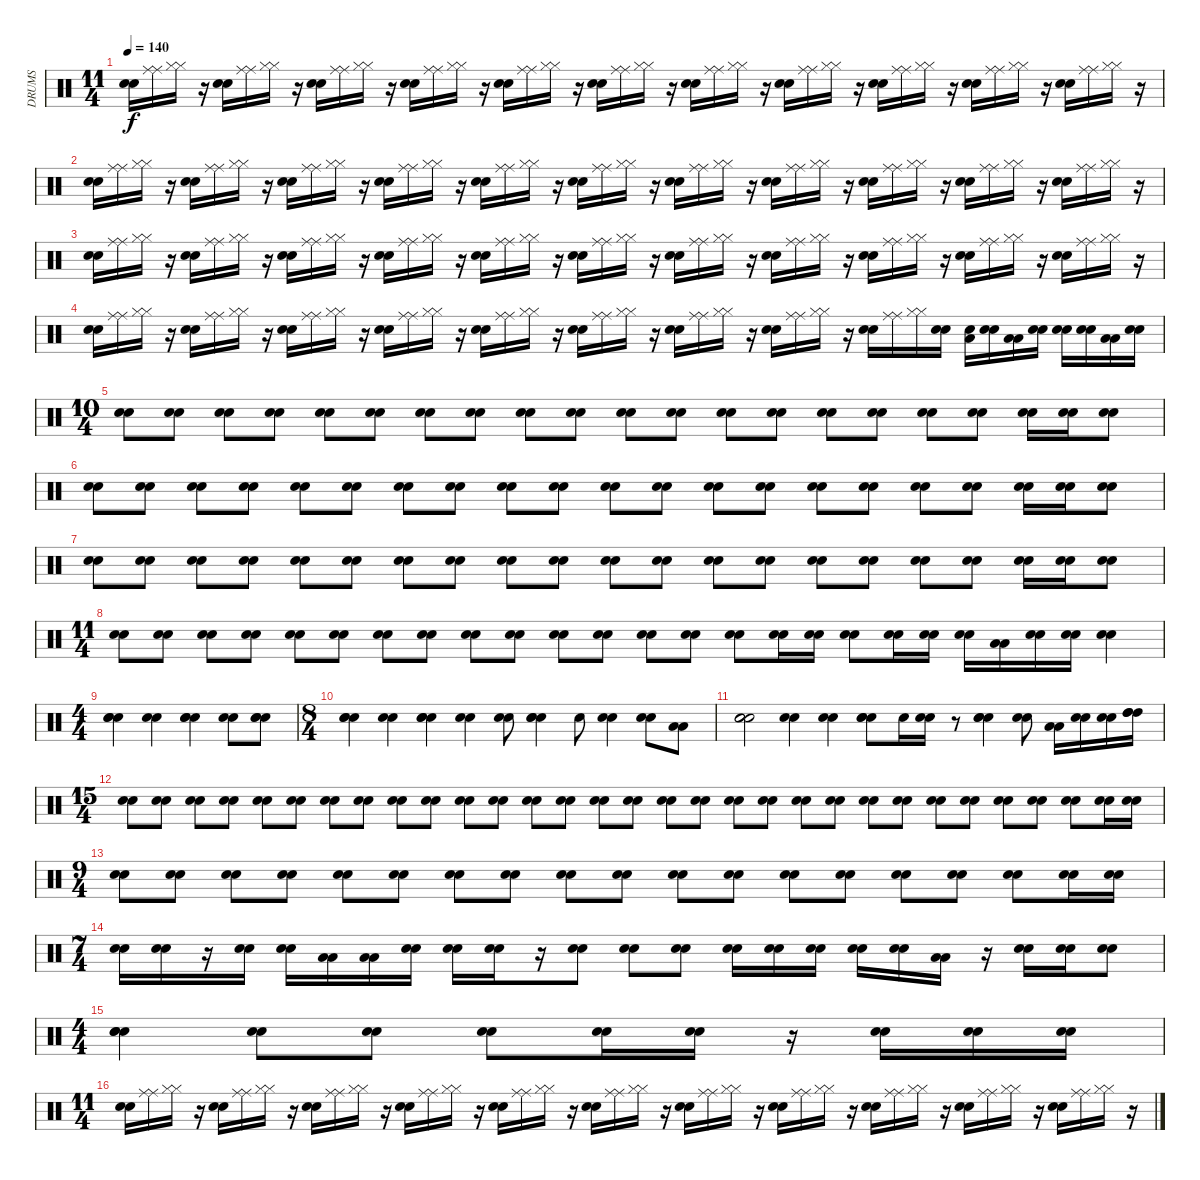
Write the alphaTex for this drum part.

\track ("DRUMS" "DRUMS") {instrument percussion}
\staff {score}
\articulation defaults
\ts (11 4)
\tempo 140
\clef neutral
\ks c
("Electric Snare (hit)" "Electric Snare (hit)").16{dy f} ("Ride (middle)" "Ride (middle)").16 ("Hi-Hat (closed)" "Hi-Hat (closed)").16 r.16 ("Electric Snare (hit)" "Electric Snare (hit)").16 ("Ride (middle)" "Ride (middle)").16 ("Hi-Hat (closed)" "Hi-Hat (closed)").16 r.16 ("Electric Snare (hit)" "Electric Snare (hit)").16 ("Ride (middle)" "Ride (middle)").16 ("Hi-Hat (closed)" "Hi-Hat (closed)").16 r.16 ("Electric Snare (hit)" "Electric Snare (hit)").16 ("Ride (middle)" "Ride (middle)").16 ("Hi-Hat (closed)" "Hi-Hat (closed)").16 r.16 ("Electric Snare (hit)" "Electric Snare (hit)").16 ("Ride (middle)" "Ride (middle)").16 ("Hi-Hat (closed)" "Hi-Hat (closed)").16 r.16 ("Electric Snare (hit)" "Electric Snare (hit)").16 ("Ride (middle)" "Ride (middle)").16 ("Hi-Hat (closed)" "Hi-Hat (closed)").16 r.16 ("Electric Snare (hit)" "Electric Snare (hit)").16 ("Ride (middle)" "Ride (middle)").16 ("Hi-Hat (closed)" "Hi-Hat (closed)").16 r.16 ("Electric Snare (hit)" "Electric Snare (hit)").16 ("Ride (middle)" "Ride (middle)").16 ("Hi-Hat (closed)" "Hi-Hat (closed)").16 r.16 ("Electric Snare (hit)" "Electric Snare (hit)").16 ("Ride (middle)" "Ride (middle)").16 ("Hi-Hat (closed)" "Hi-Hat (closed)").16 r.16 ("Electric Snare (hit)" "Electric Snare (hit)").16 ("Ride (middle)" "Ride (middle)").16 ("Hi-Hat (closed)" "Hi-Hat (closed)").16 r.16 ("Electric Snare (hit)" "Electric Snare (hit)").16 ("Ride (middle)" "Ride (middle)").16 ("Hi-Hat (closed)" "Hi-Hat (closed)").16 r.16 |
("Electric Snare (hit)" "Electric Snare (hit)").16 ("Ride (middle)" "Ride (middle)").16 ("Hi-Hat (closed)" "Hi-Hat (closed)").16 r.16 ("Electric Snare (hit)" "Electric Snare (hit)").16 ("Ride (middle)" "Ride (middle)").16 ("Hi-Hat (closed)" "Hi-Hat (closed)").16 r.16 ("Electric Snare (hit)" "Electric Snare (hit)").16 ("Ride (middle)" "Ride (middle)").16 ("Hi-Hat (closed)" "Hi-Hat (closed)").16 r.16 ("Electric Snare (hit)" "Electric Snare (hit)").16 ("Ride (middle)" "Ride (middle)").16 ("Hi-Hat (closed)" "Hi-Hat (closed)").16 r.16 ("Electric Snare (hit)" "Electric Snare (hit)").16 ("Ride (middle)" "Ride (middle)").16 ("Hi-Hat (closed)" "Hi-Hat (closed)").16 r.16 ("Electric Snare (hit)" "Electric Snare (hit)").16 ("Ride (middle)" "Ride (middle)").16 ("Hi-Hat (closed)" "Hi-Hat (closed)").16 r.16 ("Electric Snare (hit)" "Electric Snare (hit)").16 ("Ride (middle)" "Ride (middle)").16 ("Hi-Hat (closed)" "Hi-Hat (closed)").16 r.16 ("Electric Snare (hit)" "Electric Snare (hit)").16 ("Ride (middle)" "Ride (middle)").16 ("Hi-Hat (closed)" "Hi-Hat (closed)").16 r.16 ("Electric Snare (hit)" "Electric Snare (hit)").16 ("Ride (middle)" "Ride (middle)").16 ("Hi-Hat (closed)" "Hi-Hat (closed)").16 r.16 ("Electric Snare (hit)" "Electric Snare (hit)").16 ("Ride (middle)" "Ride (middle)").16 ("Hi-Hat (closed)" "Hi-Hat (closed)").16 r.16 ("Electric Snare (hit)" "Electric Snare (hit)").16 ("Ride (middle)" "Ride (middle)").16 ("Hi-Hat (closed)" "Hi-Hat (closed)").16 r.16 |
("Electric Snare (hit)" "Electric Snare (hit)").16 ("Ride (middle)" "Ride (middle)").16 ("Hi-Hat (closed)" "Hi-Hat (closed)").16 r.16 ("Electric Snare (hit)" "Electric Snare (hit)").16 ("Ride (middle)" "Ride (middle)").16 ("Hi-Hat (closed)" "Hi-Hat (closed)").16 r.16 ("Electric Snare (hit)" "Electric Snare (hit)").16 ("Ride (middle)" "Ride (middle)").16 ("Hi-Hat (closed)" "Hi-Hat (closed)").16 r.16 ("Electric Snare (hit)" "Electric Snare (hit)").16 ("Ride (middle)" "Ride (middle)").16 ("Hi-Hat (closed)" "Hi-Hat (closed)").16 r.16 ("Electric Snare (hit)" "Electric Snare (hit)").16 ("Ride (middle)" "Ride (middle)").16 ("Hi-Hat (closed)" "Hi-Hat (closed)").16 r.16 ("Electric Snare (hit)" "Electric Snare (hit)").16 ("Ride (middle)" "Ride (middle)").16 ("Hi-Hat (closed)" "Hi-Hat (closed)").16 r.16 ("Electric Snare (hit)" "Electric Snare (hit)").16 ("Ride (middle)" "Ride (middle)").16 ("Hi-Hat (closed)" "Hi-Hat (closed)").16 r.16 ("Electric Snare (hit)" "Electric Snare (hit)").16 ("Ride (middle)" "Ride (middle)").16 ("Hi-Hat (closed)" "Hi-Hat (closed)").16 r.16 ("Electric Snare (hit)" "Electric Snare (hit)").16 ("Ride (middle)" "Ride (middle)").16 ("Hi-Hat (closed)" "Hi-Hat (closed)").16 r.16 ("Electric Snare (hit)" "Electric Snare (hit)").16 ("Ride (middle)" "Ride (middle)").16 ("Hi-Hat (closed)" "Hi-Hat (closed)").16 r.16 ("Electric Snare (hit)" "Electric Snare (hit)").16 ("Ride (middle)" "Ride (middle)").16 ("Hi-Hat (closed)" "Hi-Hat (closed)").16 r.16 |
("Electric Snare (hit)" "Electric Snare (hit)").16 ("Ride (middle)" "Ride (middle)").16 ("Hi-Hat (closed)" "Hi-Hat (closed)").16 r.16 ("Electric Snare (hit)" "Electric Snare (hit)").16 ("Ride (middle)" "Ride (middle)").16 ("Hi-Hat (closed)" "Hi-Hat (closed)").16 r.16 ("Electric Snare (hit)" "Electric Snare (hit)").16 ("Ride (middle)" "Ride (middle)").16 ("Hi-Hat (closed)" "Hi-Hat (closed)").16 r.16 ("Electric Snare (hit)" "Electric Snare (hit)").16 ("Ride (middle)" "Ride (middle)").16 ("Hi-Hat (closed)" "Hi-Hat (closed)").16 r.16 ("Electric Snare (hit)" "Electric Snare (hit)").16 ("Ride (middle)" "Ride (middle)").16 ("Hi-Hat (closed)" "Hi-Hat (closed)").16 r.16 ("Electric Snare (hit)" "Electric Snare (hit)").16 ("Ride (middle)" "Ride (middle)").16 ("Hi-Hat (closed)" "Hi-Hat (closed)").16 r.16 ("Electric Snare (hit)" "Electric Snare (hit)").16 ("Ride (middle)" "Ride (middle)").16 ("Hi-Hat (closed)" "Hi-Hat (closed)").16 r.16 ("Electric Snare (hit)" "Electric Snare (hit)").16 ("Ride (middle)" "Ride (middle)").16 ("Hi-Hat (closed)" "Hi-Hat (closed)").16 r.16 ("Electric Snare (hit)" "Electric Snare (hit)").16 ("Ride (middle)" "Ride (middle)").16 ("Hi-Hat (closed)" "Hi-Hat (closed)").16 ("Electric Snare (hit)" "Electric Snare (hit)").16 ("Electric Snare (hit)" "Low Floor Tom (hit)").16 ("Electric Snare (hit)" "Electric Snare (hit)").16 ("Low Tom (hit)" "Low Tom (hit)").16 ("Electric Snare (hit)" "Electric Snare (hit)").16 ("Electric Snare (hit)" "Electric Snare (hit)").16 ("Electric Snare (hit)" "Electric Snare (hit)").16 ("Low Tom (hit)" "Low Tom (hit)").16 ("Electric Snare (hit)" "Electric Snare (hit)").16 |
\ts (10 4)
("Electric Snare (hit)" "Electric Snare (hit)").8 ("Snare (hit) 2" "Snare (hit) 2").8 ("Electric Snare (hit)" "Electric Snare (hit)").8 ("Snare (hit) 2" "Snare (hit) 2").8 ("Electric Snare (hit)" "Electric Snare (hit)").8 ("Snare (hit) 2" "Snare (hit) 2").8 ("Electric Snare (hit)" "Electric Snare (hit)").8 ("Snare (hit) 2" "Snare (hit) 2").8 ("Electric Snare (hit)" "Electric Snare (hit)").8 ("Snare (hit) 2" "Snare (hit) 2").8 ("Electric Snare (hit)" "Electric Snare (hit)").8 ("Snare (hit) 2" "Snare (hit) 2").8 ("Electric Snare (hit)" "Electric Snare (hit)").8 ("Snare (hit) 2" "Snare (hit) 2").8 ("Electric Snare (hit)" "Electric Snare (hit)").8 ("Snare (hit) 2" "Snare (hit) 2").8 ("Electric Snare (hit)" "Electric Snare (hit)").8 ("Snare (hit) 2" "Snare (hit) 2").8 ("Electric Snare (hit)" "Electric Snare (hit)").16 ("Electric Snare (hit)" "Electric Snare (hit)").16 ("Snare (hit) 2" "Snare (hit) 2").8 |
("Electric Snare (hit)" "Electric Snare (hit)").8 ("Snare (hit) 2" "Snare (hit) 2").8 ("Electric Snare (hit)" "Electric Snare (hit)").8 ("Snare (hit) 2" "Snare (hit) 2").8 ("Electric Snare (hit)" "Electric Snare (hit)").8 ("Snare (hit) 2" "Snare (hit) 2").8 ("Electric Snare (hit)" "Electric Snare (hit)").8 ("Snare (hit) 2" "Snare (hit) 2").8 ("Electric Snare (hit)" "Electric Snare (hit)").8 ("Snare (hit) 2" "Snare (hit) 2").8 ("Electric Snare (hit)" "Electric Snare (hit)").8 ("Snare (hit) 2" "Snare (hit) 2").8 ("Electric Snare (hit)" "Electric Snare (hit)").8 ("Snare (hit) 2" "Snare (hit) 2").8 ("Electric Snare (hit)" "Electric Snare (hit)").8 ("Snare (hit) 2" "Snare (hit) 2").8 ("Electric Snare (hit)" "Electric Snare (hit)").8 ("Snare (hit) 2" "Snare (hit) 2").8 ("Electric Snare (hit)" "Electric Snare (hit)").16 ("Electric Snare (hit)" "Electric Snare (hit)").16 ("Snare (hit) 2" "Snare (hit) 2").8 |
("Electric Snare (hit)" "Electric Snare (hit)").8 ("Snare (hit) 2" "Snare (hit) 2").8 ("Electric Snare (hit)" "Electric Snare (hit)").8 ("Snare (hit) 2" "Snare (hit) 2").8 ("Electric Snare (hit)" "Electric Snare (hit)").8 ("Snare (hit) 2" "Snare (hit) 2").8 ("Electric Snare (hit)" "Electric Snare (hit)").8 ("Snare (hit) 2" "Snare (hit) 2").8 ("Electric Snare (hit)" "Electric Snare (hit)").8 ("Snare (hit) 2" "Snare (hit) 2").8 ("Electric Snare (hit)" "Electric Snare (hit)").8 ("Snare (hit) 2" "Snare (hit) 2").8 ("Electric Snare (hit)" "Electric Snare (hit)").8 ("Snare (hit) 2" "Snare (hit) 2").8 ("Electric Snare (hit)" "Electric Snare (hit)").8 ("Snare (hit) 2" "Snare (hit) 2").8 ("Electric Snare (hit)" "Electric Snare (hit)").8 ("Snare (hit) 2" "Snare (hit) 2").8 ("Electric Snare (hit)" "Electric Snare (hit)").16 ("Electric Snare (hit)" "Electric Snare (hit)").16 ("Snare (hit) 2" "Snare (hit) 2").8 |
\ts (11 4)
("Electric Snare (hit)" "Electric Snare (hit)").8 ("Snare (hit) 2" "Snare (hit) 2").8 ("Electric Snare (hit)" "Electric Snare (hit)").8 ("Snare (hit) 2" "Snare (hit) 2").8 ("Electric Snare (hit)" "Electric Snare (hit)").8 ("Snare (hit) 2" "Snare (hit) 2").8 ("Electric Snare (hit)" "Electric Snare (hit)").8 ("Snare (hit) 2" "Snare (hit) 2").8 ("Electric Snare (hit)" "Electric Snare (hit)").8 ("Snare (hit) 2" "Snare (hit) 2").8 ("Electric Snare (hit)" "Electric Snare (hit)").8 ("Snare (hit) 2" "Snare (hit) 2").8 ("Electric Snare (hit)" "Electric Snare (hit)").8 ("Snare (hit) 2" "Snare (hit) 2").8 ("Electric Snare (hit)" "Electric Snare (hit)").8 ("Electric Snare (hit)" "Electric Snare (hit)").16 ("Electric Snare (hit)" "Electric Snare (hit)").16 ("Snare (hit) 2" "Snare (hit) 2").8 ("Electric Snare (hit)" "Electric Snare (hit)").16 ("Electric Snare (hit)" "Electric Snare (hit)").16 ("Electric Snare (hit)" "Electric Snare (hit)").16 ("Low Tom (hit)" "Low Tom (hit)").16 ("Electric Snare (hit)" "Electric Snare (hit)").16 ("Electric Snare (hit)" "Electric Snare (hit)").16 ("Electric Snare (hit)" "Electric Snare (hit)").4 |
\ts (4 4)
("Snare (hit) 2" "Snare (hit) 2" "Hand Clap (hit)").4 ("Electric Snare (hit)" "Electric Snare (hit)").4 ("Snare (hit) 2" "Snare (hit) 2" "Hand Clap (hit)").4 ("Snare (hit) 2" "Snare (hit) 2").8 ("Electric Snare (hit)" "Electric Snare (hit)" "Hand Clap (hit)").8 |
\ts (8 4)
("Snare (hit) 2" "Snare (hit) 2" "Hand Clap (hit)").4 ("Electric Snare (hit)" "Electric Snare (hit)").4 ("Snare (hit) 2" "Snare (hit) 2" "Hand Clap (hit)").4 ("Electric Snare (hit)" "Electric Snare (hit)").4 ("Snare (hit) 2" "Snare (hit) 2").8 ("Snare (hit) 2" "Snare (hit) 2" "Snare (hit) 2").4 "Electric Snare (hit)".8 ("Electric Snare (hit)" "Electric Snare (hit)").4 ("Electric Snare (hit)" "Electric Snare (hit)").8 ("Low Tom (hit)" "Low Tom (hit)").8 |
("Snare (hit) 2" "Snare (hit) 2" "Hand Clap (hit)").2 ("Electric Snare (hit)" "Electric Snare (hit)").4 ("Electric Snare (hit)" "Electric Snare (hit)").4 ("Snare (hit) 2" "Snare (hit) 2" "Snare (hit) 2").8 "Electric Snare (hit)".16 ("Electric Snare (hit)" "Electric Snare (hit)").16 r.8 ("Snare (hit) 2" "Snare (hit) 2" "Hand Clap (hit)").4 ("Electric Snare (hit)" "Electric Snare (hit)").8 ("Low Tom (hit)" "Low Tom (hit)").16 ("Electric Snare (hit)" "Electric Snare (hit)").16 ("Electric Snare (hit)" "Electric Snare (hit)").16 ("High Tom (hit)" "High Tom (hit)" "High Tom (hit)").16 |
\ts (15 4)
("Snare (hit) 2" "Snare (hit) 2").8 ("Electric Snare (hit)" "Electric Snare (hit)").8 ("Snare (hit) 2" "Snare (hit) 2").8 ("Electric Snare (hit)" "Electric Snare (hit)").8 ("Snare (hit) 2" "Snare (hit) 2").8 ("Electric Snare (hit)" "Electric Snare (hit)").8 ("Snare (hit) 2" "Snare (hit) 2").8 ("Electric Snare (hit)" "Electric Snare (hit)").8 ("Snare (hit) 2" "Snare (hit) 2").8 ("Electric Snare (hit)" "Electric Snare (hit)").8 ("Snare (hit) 2" "Snare (hit) 2").8 ("Electric Snare (hit)" "Electric Snare (hit)").8 ("Snare (hit) 2" "Snare (hit) 2").8 ("Electric Snare (hit)" "Electric Snare (hit)").8 ("Snare (hit) 2" "Snare (hit) 2").8 ("Electric Snare (hit)" "Electric Snare (hit)").8 ("Snare (hit) 2" "Snare (hit) 2").8 ("Electric Snare (hit)" "Electric Snare (hit)").8 ("Snare (hit) 2" "Snare (hit) 2").8 ("Electric Snare (hit)" "Electric Snare (hit)").8 ("Snare (hit) 2" "Snare (hit) 2").8 ("Electric Snare (hit)" "Electric Snare (hit)").8 ("Snare (hit) 2" "Snare (hit) 2").8 ("Electric Snare (hit)" "Electric Snare (hit)").8 ("Snare (hit) 2" "Snare (hit) 2").8 ("Electric Snare (hit)" "Electric Snare (hit)").8 ("Snare (hit) 2" "Snare (hit) 2").8 ("Electric Snare (hit)" "Electric Snare (hit)").8 ("Snare (hit) 2" "Snare (hit) 2").8 ("Electric Snare (hit)" "Electric Snare (hit)").16 ("Electric Snare (hit)" "Electric Snare (hit)").16 |
\ts (9 4)
("Snare (hit) 2" "Snare (hit) 2").8 ("Electric Snare (hit)" "Electric Snare (hit)").8 ("Snare (hit) 2" "Snare (hit) 2").8 ("Electric Snare (hit)" "Electric Snare (hit)").8 ("Snare (hit) 2" "Snare (hit) 2").8 ("Electric Snare (hit)" "Electric Snare (hit)").8 ("Electric Snare (hit)" "Electric Snare (hit)").8 ("Electric Snare (hit)" "Electric Snare (hit)").8 ("Snare (hit) 2" "Snare (hit) 2").8 ("Electric Snare (hit)" "Electric Snare (hit)").8 ("Snare (hit) 2" "Snare (hit) 2").8 ("Electric Snare (hit)" "Electric Snare (hit)").8 ("Snare (hit) 2" "Snare (hit) 2").8 ("Electric Snare (hit)" "Electric Snare (hit)").8 ("Snare (hit) 2" "Snare (hit) 2").8 ("Electric Snare (hit)" "Electric Snare (hit)").8 ("Snare (hit) 2" "Snare (hit) 2").8 ("Electric Snare (hit)" "Electric Snare (hit)").16 ("Electric Snare (hit)" "Electric Snare (hit)").16 |
\ts (7 4)
("Electric Snare (hit)" "Electric Snare (hit)").16 ("Electric Snare (hit)" "Electric Snare (hit)").16 r.16 ("Electric Snare (hit)" "Electric Snare (hit)").16 ("Snare (hit) 2" "Snare (hit) 2").16 ("Low Tom (hit)" "Low Tom (hit)").16 ("Low Tom (hit)" "Low Tom (hit)").16 ("Electric Snare (hit)" "Electric Snare (hit)").16 ("Electric Snare (hit)" "Electric Snare (hit)").16 ("Electric Snare (hit)" "Electric Snare (hit)").16 r.16 ("Electric Snare (hit)" "Electric Snare (hit)").8 ("Electric Snare (hit)" "Electric Snare (hit)").8 ("Electric Snare (hit)" "Electric Snare (hit)").8 ("Electric Snare (hit)" "Electric Snare (hit)").16 ("Electric Snare (hit)" "Electric Snare (hit)").16 ("Electric Snare (hit)" "Electric Snare (hit)").16 ("Electric Snare (hit)" "Electric Snare (hit)").16 ("Electric Snare (hit)" "Electric Snare (hit)").16 ("Low Floor Tom (hit)" "Low Floor Tom (hit)").16 r.16 ("Electric Snare (hit)" "Electric Snare (hit)").16 ("Electric Snare (hit)" "Electric Snare (hit)").16 ("Electric Snare (hit)" "Electric Snare (hit)").8 |
\ts (4 4)
("Snare (hit) 2" "Snare (hit) 2" "Hand Clap (hit)").4 ("Electric Snare (hit)" "Electric Snare (hit)").8 ("Electric Snare (hit)" "Electric Snare (hit)").8 ("Snare (hit) 2" "Snare (hit) 2").8 ("Electric Snare (hit)" "Electric Snare (hit)").16 ("Electric Snare (hit)" "Electric Snare (hit)").16 r.16 ("Electric Snare (hit)" "Electric Snare (hit)").16 ("Electric Snare (hit)" "Electric Snare (hit)").16 ("Electric Snare (hit)" "Electric Snare (hit)").16 |
\ts (11 4)
("Electric Snare (hit)" "Electric Snare (hit)").16 ("Ride (middle)" "Ride (middle)").16 ("Hi-Hat (closed)" "Hi-Hat (closed)").16 r.16 ("Electric Snare (hit)" "Electric Snare (hit)").16 ("Ride (middle)" "Ride (middle)").16 ("Hi-Hat (closed)" "Hi-Hat (closed)").16 r.16 ("Electric Snare (hit)" "Electric Snare (hit)").16 ("Ride (middle)" "Ride (middle)").16 ("Hi-Hat (closed)" "Hi-Hat (closed)").16 r.16 ("Electric Snare (hit)" "Electric Snare (hit)").16 ("Ride (middle)" "Ride (middle)").16 ("Hi-Hat (closed)" "Hi-Hat (closed)").16 r.16 ("Electric Snare (hit)" "Electric Snare (hit)").16 ("Ride (middle)" "Ride (middle)").16 ("Hi-Hat (closed)" "Hi-Hat (closed)").16 r.16 ("Electric Snare (hit)" "Electric Snare (hit)").16 ("Ride (middle)" "Ride (middle)").16 ("Hi-Hat (closed)" "Hi-Hat (closed)").16 r.16 ("Electric Snare (hit)" "Electric Snare (hit)").16 ("Ride (middle)" "Ride (middle)").16 ("Hi-Hat (closed)" "Hi-Hat (closed)").16 r.16 ("Electric Snare (hit)" "Electric Snare (hit)").16 ("Ride (middle)" "Ride (middle)").16 ("Hi-Hat (closed)" "Hi-Hat (closed)").16 r.16 ("Electric Snare (hit)" "Electric Snare (hit)").16 ("Ride (middle)" "Ride (middle)").16 ("Hi-Hat (closed)" "Hi-Hat (closed)").16 r.16 ("Electric Snare (hit)" "Electric Snare (hit)").16 ("Ride (middle)" "Ride (middle)").16 ("Hi-Hat (closed)" "Hi-Hat (closed)").16 r.16 ("Electric Snare (hit)" "Electric Snare (hit)").16 ("Ride (middle)" "Ride (middle)").16 ("Hi-Hat (closed)" "Hi-Hat (closed)").16 r.16
